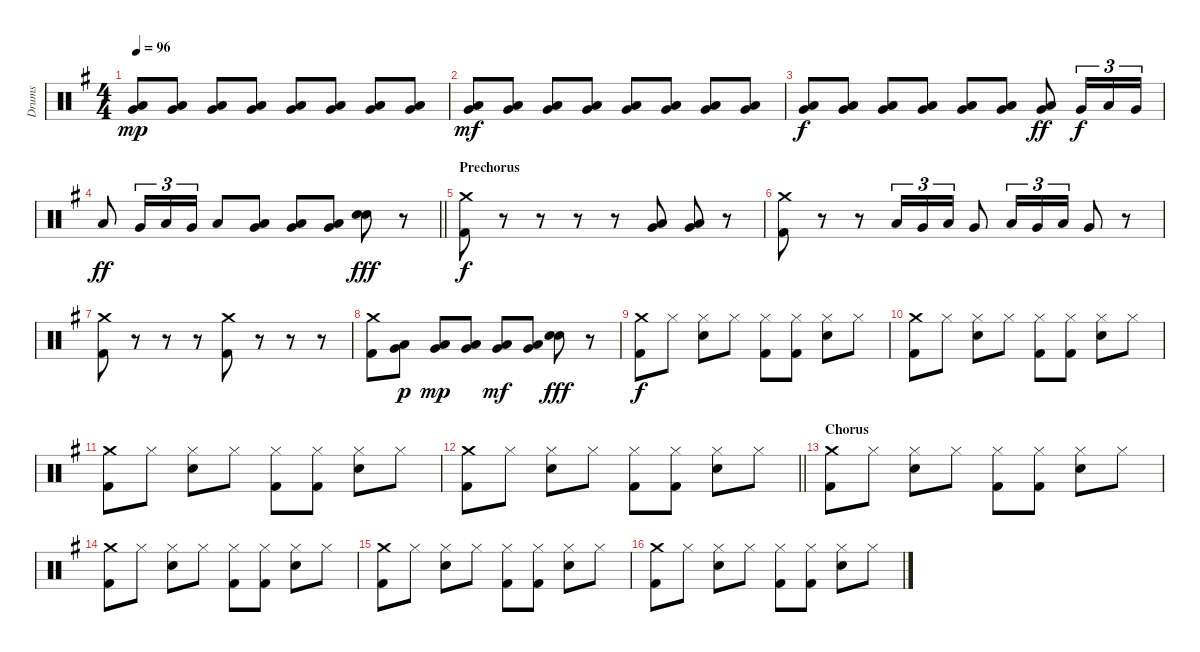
\track ("Drums" "Drums") {instrument percussion}
\staff {score}
\articulation defaults
\ts (4 4)
\tempo 96
\clef neutral
\ks g
("Low Tom (hit)" "Very Low Tom (hit)").8{dy mp} ("Low Tom (hit)" "Very Low Tom (hit)").8 ("Low Tom (hit)" "Very Low Tom (hit)").8 ("Low Tom (hit)" "Very Low Tom (hit)").8 ("Low Tom (hit)" "Very Low Tom (hit)").8 ("Low Tom (hit)" "Very Low Tom (hit)").8 ("Low Tom (hit)" "Very Low Tom (hit)").8 ("Low Tom (hit)" "Very Low Tom (hit)").8 |
("Low Tom (hit)" "Very Low Tom (hit)").8{dy mf} ("Low Tom (hit)" "Very Low Tom (hit)").8 ("Low Tom (hit)" "Very Low Tom (hit)").8 ("Low Tom (hit)" "Very Low Tom (hit)").8 ("Low Tom (hit)" "Very Low Tom (hit)").8 ("Low Tom (hit)" "Very Low Tom (hit)").8 ("Low Tom (hit)" "Very Low Tom (hit)").8 ("Low Tom (hit)" "Very Low Tom (hit)").8 |
("Low Tom (hit)" "Very Low Tom (hit)").8{dy f} ("Low Tom (hit)" "Very Low Tom (hit)").8 ("Low Tom (hit)" "Very Low Tom (hit)").8 ("Low Tom (hit)" "Very Low Tom (hit)").8 ("Low Tom (hit)" "Very Low Tom (hit)").8 ("Low Tom (hit)" "Very Low Tom (hit)").8 ("Low Tom (hit)" "Very Low Tom (hit)").8{dy ff} "Very Low Tom (hit)".16{tu (3 2) dy f} "Low Tom (hit)".16{tu (3 2)} "Very Low Tom (hit)".16{tu (3 2)} |
\barLineRight lightlight "Low Tom (hit)".8{dy ff} "Very Low Tom (hit)".16{tu (3 2)} "Low Tom (hit)".16{tu (3 2)} "Very Low Tom (hit)".16{tu (3 2)} "Low Tom (hit)".8
("Low Tom (hit)" "Very Low Tom (hit)").8 ("Low Tom (hit)" "Very Low Tom (hit)").8 ("Low Tom (hit)" "Very Low Tom (hit)").8 ("Snare (hit) 2" "Snare (hit) 2").8{dy fff} r.8 |
\section ("" "Prechorus")
("Crash medium (hit)" "Kick (hit) 2").8{dy f} r.8 r.8 r.8 r.8 ("Low Tom (hit)" "Very Low Tom (hit)").8 ("Very Low Tom (hit)" "Low Floor Tom (hit)").8 r.8 |
("Crash medium (hit)" "Kick (hit) 2").8 r.8 r.8 "Low Tom (hit)".16{tu (3 2)} "Very Low Tom (hit)".16{tu (3 2)} "Low Tom (hit)".16{tu (3 2)} "Very Low Tom (hit)".8 "Low Tom (hit)".16{tu (3 2)} "Very Low Tom (hit)".16{tu (3 2)} "Low Tom (hit)".16{tu (3 2)} "Very Low Tom (hit)".8 r.8 |
("Crash medium (hit)" "Kick (hit) 2").8 r.8 r.8 r.8 ("Crash medium (hit)" "Kick (hit) 2").8 r.8 r.8 r.8 |
("Crash medium (hit)" "Kick (hit) 2").8 ("Low Tom (hit)" "Very Low Tom (hit)").8{dy p} ("Low Tom (hit)" "Very Low Tom (hit)").8{dy mp} ("Low Tom (hit)" "Very Low Tom (hit)").8 ("Low Tom (hit)" "Very Low Tom (hit)").8{dy mf} ("Low Tom (hit)" "Very Low Tom (hit)").8 ("Snare (hit) 2" "Snare (hit) 2").8{dy fff} r.8 |
("Crash medium (hit)" "Kick (hit) 2").8{dy f} "Hi-Hat (closed)".8 ("Hi-Hat (closed)" "Snare (hit) 2").8 "Hi-Hat (closed)".8 ("Hi-Hat (closed)" "Kick (hit) 2").8 ("Hi-Hat (closed)" "Kick (hit) 2").8 ("Hi-Hat (closed)" "Snare (hit) 2").8 "Hi-Hat (closed)".8 |
("Crash medium (hit)" "Kick (hit) 2").8 "Hi-Hat (closed)".8 ("Hi-Hat (closed)" "Snare (hit) 2").8 "Hi-Hat (closed)".8 ("Hi-Hat (closed)" "Kick (hit) 2").8 ("Hi-Hat (closed)" "Kick (hit) 2").8 ("Hi-Hat (closed)" "Snare (hit) 2").8 "Hi-Hat (closed)".8 |
("Crash medium (hit)" "Kick (hit) 2").8 "Hi-Hat (closed)".8 ("Hi-Hat (closed)" "Snare (hit) 2").8 "Hi-Hat (closed)".8 ("Hi-Hat (closed)" "Kick (hit) 2").8 ("Hi-Hat (closed)" "Kick (hit) 2").8 ("Hi-Hat (closed)" "Snare (hit) 2").8 "Hi-Hat (closed)".8 |
\barLineRight lightlight
("Crash medium (hit)" "Kick (hit) 2").8 "Hi-Hat (closed)".8 ("Hi-Hat (closed)" "Snare (hit) 2").8 "Hi-Hat (closed)".8 ("Hi-Hat (closed)" "Kick (hit) 2").8 ("Hi-Hat (closed)" "Kick (hit) 2").8 ("Hi-Hat (closed)" "Snare (hit) 2").8 "Hi-Hat (closed)".8 |
\section ("" "Chorus")
("Crash medium (hit)" "Kick (hit) 2").8 "Hi-Hat (closed)".8 ("Hi-Hat (closed)" "Snare (hit) 2").8 "Hi-Hat (closed)".8 ("Hi-Hat (closed)" "Kick (hit) 2").8 ("Hi-Hat (closed)" "Kick (hit) 2").8 ("Hi-Hat (closed)" "Snare (hit) 2").8 "Hi-Hat (closed)".8 |
("Crash medium (hit)" "Kick (hit) 2").8 "Hi-Hat (closed)".8 ("Hi-Hat (closed)" "Snare (hit) 2").8 "Hi-Hat (closed)".8 ("Hi-Hat (closed)" "Kick (hit) 2").8 ("Hi-Hat (closed)" "Kick (hit) 2").8 ("Hi-Hat (closed)" "Snare (hit) 2").8 "Hi-Hat (closed)".8 |
("Crash medium (hit)" "Kick (hit) 2").8 "Hi-Hat (closed)".8 ("Hi-Hat (closed)" "Snare (hit) 2").8 "Hi-Hat (closed)".8 ("Hi-Hat (closed)" "Kick (hit) 2").8 ("Hi-Hat (closed)" "Kick (hit) 2").8 ("Hi-Hat (closed)" "Snare (hit) 2").8 "Hi-Hat (closed)".8 |
("Crash medium (hit)" "Kick (hit) 2").8 "Hi-Hat (closed)".8 ("Hi-Hat (closed)" "Snare (hit) 2").8 "Hi-Hat (closed)".8 ("Hi-Hat (closed)" "Kick (hit) 2").8 ("Hi-Hat (closed)" "Kick (hit) 2").8 ("Hi-Hat (closed)" "Snare (hit) 2").8 "Hi-Hat (closed)".8
